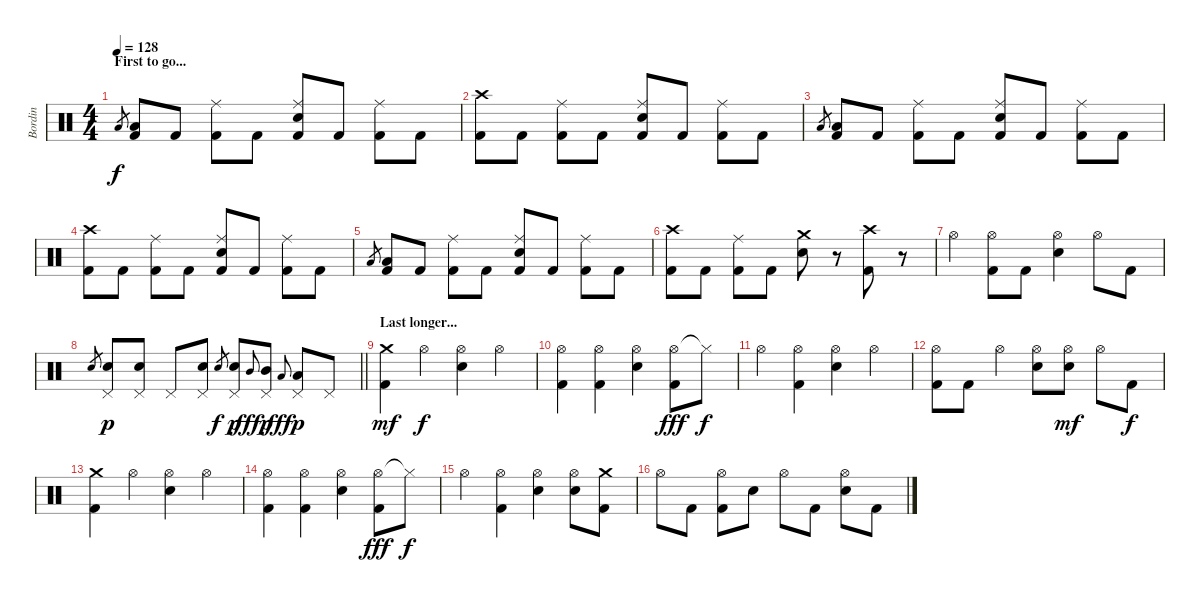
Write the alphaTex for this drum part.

\track ("Bordin" "Bordin") {instrument percussion}
\staff {score}
\articulation defaults
\ts (4 4)
\section ("" "First to go...")
\tempo 128
\clef neutral
\ks c "Low Tom (hit)".8{gr dy f}
("Low Tom (hit)" "Kick (hit) 2").8 "Kick (hit) 2".8 ("Ride (middle)" "Kick (hit) 2").8 "Kick (hit) 2".8 ("Ride (middle)" "Electric Snare (hit)" "Kick (hit) 2").8 "Kick (hit) 2".8 ("Ride (middle)" "Kick (hit) 2").8 "Kick (hit) 2".8 |
("Crash high (hit)" "Kick (hit) 2").8 "Kick (hit) 2".8 ("Ride (middle)" "Kick (hit) 2").8 "Kick (hit) 2".8 ("Ride (middle)" "Electric Snare (hit)" "Kick (hit) 2").8 "Kick (hit) 2".8 ("Ride (middle)" "Kick (hit) 2").8 "Kick (hit) 2".8 |
"Low Tom (hit)".8{gr} ("Low Tom (hit)" "Kick (hit) 2").8 "Kick (hit) 2".8 ("Ride (middle)" "Kick (hit) 2").8 "Kick (hit) 2".8 ("Ride (middle)" "Electric Snare (hit)" "Kick (hit) 2").8 "Kick (hit) 2".8 ("Ride (middle)" "Kick (hit) 2").8 "Kick (hit) 2".8 |
("Crash high (hit)" "Kick (hit) 2").8 "Kick (hit) 2".8 ("Ride (middle)" "Kick (hit) 2").8 "Kick (hit) 2".8 ("Ride (middle)" "Electric Snare (hit)" "Kick (hit) 2").8 "Kick (hit) 2".8 ("Ride (middle)" "Kick (hit) 2").8 "Kick (hit) 2".8 |
"Low Tom (hit)".8{gr} ("Low Tom (hit)" "Kick (hit) 2").8 "Kick (hit) 2".8 ("Ride (middle)" "Kick (hit) 2").8 "Kick (hit) 2".8 ("Ride (middle)" "Electric Snare (hit)" "Kick (hit) 2").8 "Kick (hit) 2".8 ("Ride (middle)" "Kick (hit) 2").8 "Kick (hit) 2".8 |
("Crash high (hit)" "Kick (hit) 2").8 "Kick (hit) 2".8 ("Ride (middle)" "Kick (hit) 2").8 "Kick (hit) 2".8 ("Crash medium (hit)" "Electric Snare (hit)").8 r.8 ("Crash high (hit)" "Kick (hit) 2").8 r.8 |
"Hi-Hat (open)".4 ("Hi-Hat (open)" "Kick (hit) 2").8 "Kick (hit) 2".8 ("Hi-Hat (open)" "Electric Snare (hit)").4 "Hi-Hat (open)".8 "Kick (hit) 2".8 |
\barLineRight lightlight "Electric Snare (hit)".8{gr}
("Pedal Hi-Hat (hit)" "Electric Snare (hit)").8{dy p} ("Pedal Hi-Hat (hit)" "Electric Snare (hit)").8 "Pedal Hi-Hat (hit)".8 ("Pedal Hi-Hat (hit)" "Electric Snare (hit)").8 "Electric Snare (hit)".8{gr dy f} ("Pedal Hi-Hat (hit)" "Electric Snare (hit)").8{dy p} "Mid Tom (hit)".8{gr onbeat dy fff} ("Mid Tom (hit)" "Pedal Hi-Hat (hit)").8{dy p} "Low Tom (hit)".8{gr onbeat dy fff} ("Low Tom (hit)" "Pedal Hi-Hat (hit)").8{dy p} "Pedal Hi-Hat (hit)".8 |
\section ("" "Last longer...")
("Crash medium (hit)" "Kick (hit) 2").4{dy mf} "Hi-Hat (open)".4{dy f} ("Hi-Hat (open)" "Electric Snare (hit)").4 "Hi-Hat (open)".4 |
("Hi-Hat (open)" "Kick (hit) 2").4 ("Hi-Hat (open)" "Kick (hit) 2").4 ("Hi-Hat (open)" "Electric Snare (hit)").4 ("Hi-Hat (open)" "Kick (hit) 2").8{dy fff} "Hi-Hat (closed)"{t}.8{dy f} |
"Hi-Hat (open)".4 ("Hi-Hat (open)" "Kick (hit) 2").4 ("Hi-Hat (open)" "Electric Snare (hit)").4 "Hi-Hat (open)".4 |
("Hi-Hat (open)" "Kick (hit) 2").8 "Kick (hit) 2".8 "Hi-Hat (open)".4 ("Hi-Hat (open)" "Electric Snare (hit)").8 ("Hi-Hat (open)" "Electric Snare (hit)").8{dy mf} "Hi-Hat (open)".8 "Kick (hit) 2".8{dy f} |
("Crash medium (hit)" "Kick (hit) 2").4 "Hi-Hat (open)".4 ("Hi-Hat (open)" "Electric Snare (hit)").4 "Hi-Hat (open)".4 |
("Hi-Hat (open)" "Kick (hit) 2").4 ("Hi-Hat (open)" "Kick (hit) 2").4 ("Hi-Hat (open)" "Electric Snare (hit)").4 ("Hi-Hat (open)" "Kick (hit) 2").8{dy fff} "Hi-Hat (closed)"{t}.8{dy f} |
"Hi-Hat (open)".4 ("Hi-Hat (open)" "Kick (hit) 2").4 ("Hi-Hat (open)" "Electric Snare (hit)").4 ("Hi-Hat (open)" "Electric Snare (hit)").8 ("Crash medium (hit)" "Kick (hit) 2").8 |
"Hi-Hat (open)".8 "Kick (hit) 2".8 ("Hi-Hat (open)" "Kick (hit) 2").8 "Electric Snare (hit)".8 "Hi-Hat (open)".8 "Kick (hit) 2".8 ("Hi-Hat (open)" "Electric Snare (hit)").8 "Kick (hit) 2".8
